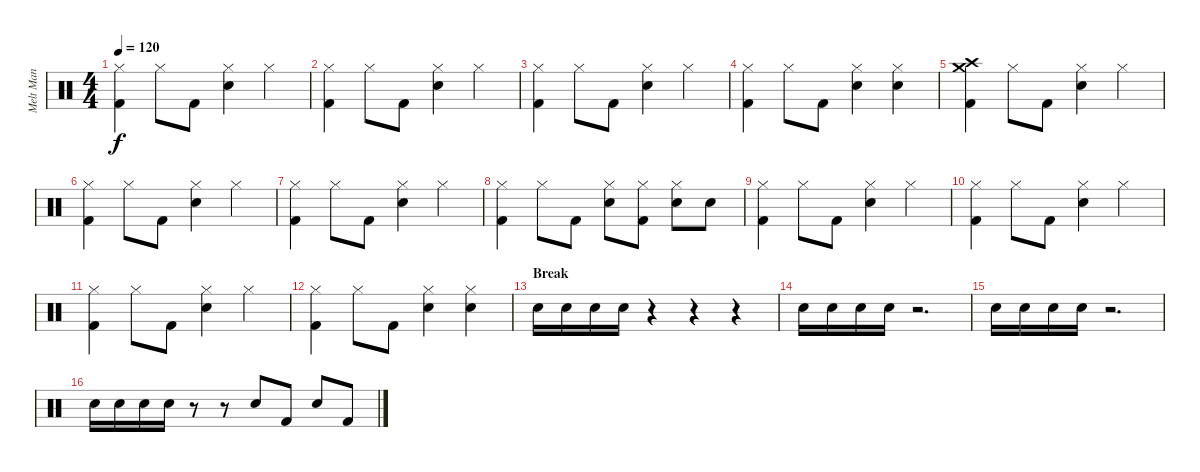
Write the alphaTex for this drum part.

\track ("Melt Man" "Melt Man") {instrument percussion}
\staff {score}
\articulation defaults
\ts (4 4)
\tempo 120
\clef neutral
\ks c
("Hi-Hat (closed)" "Kick (hit) 2").4{dy f} "Hi-Hat (closed)".8 "Kick (hit) 2".8 ("Hi-Hat (closed)" "Snare (hit) 2").4 "Hi-Hat (closed)".4 |
("Hi-Hat (closed)" "Kick (hit) 2").4 "Hi-Hat (closed)".8 "Kick (hit) 2".8 ("Hi-Hat (closed)" "Snare (hit) 2").4 "Hi-Hat (closed)".4 |
("Hi-Hat (closed)" "Kick (hit) 2").4 "Hi-Hat (closed)".8 "Kick (hit) 2".8 ("Hi-Hat (closed)" "Snare (hit) 2").4 "Hi-Hat (closed)".4 |
("Hi-Hat (closed)" "Kick (hit) 2").4 "Hi-Hat (closed)".8 "Kick (hit) 2".8 ("Hi-Hat (closed)" "Snare (hit) 2").4 ("Hi-Hat (closed)" "Snare (hit) 2").4 |
("Crash medium (hit)" "Crash high (hit)" "Kick (hit) 2").4 "Hi-Hat (closed)".8 "Kick (hit) 2".8 ("Hi-Hat (closed)" "Snare (hit) 2").4 "Hi-Hat (closed)".4 |
("Hi-Hat (closed)" "Kick (hit) 2").4 "Hi-Hat (closed)".8 "Kick (hit) 2".8 ("Hi-Hat (closed)" "Snare (hit) 2").4 "Hi-Hat (closed)".4 |
("Hi-Hat (closed)" "Kick (hit) 2").4 "Hi-Hat (closed)".8 "Kick (hit) 2".8 ("Hi-Hat (closed)" "Snare (hit) 2").4 "Hi-Hat (closed)".4 |
("Hi-Hat (closed)" "Kick (hit) 2").4 "Hi-Hat (closed)".8 "Kick (hit) 2".8 ("Hi-Hat (closed)" "Snare (hit) 2").8 ("Hi-Hat (closed)" "Kick (hit) 2").8 ("Hi-Hat (closed)" "Snare (hit) 2").8 "Snare (hit) 2".8 |
("Hi-Hat (closed)" "Kick (hit) 2").4 "Hi-Hat (closed)".8 "Kick (hit) 2".8 ("Hi-Hat (closed)" "Snare (hit) 2").4 "Hi-Hat (closed)".4 |
("Hi-Hat (closed)" "Kick (hit) 2").4 "Hi-Hat (closed)".8 "Kick (hit) 2".8 ("Hi-Hat (closed)" "Snare (hit) 2").4 "Hi-Hat (closed)".4 |
("Hi-Hat (closed)" "Kick (hit) 2").4 "Hi-Hat (closed)".8 "Kick (hit) 2".8 ("Hi-Hat (closed)" "Snare (hit) 2").4 "Hi-Hat (closed)".4 |
("Hi-Hat (closed)" "Kick (hit) 2").4 "Hi-Hat (closed)".8 "Kick (hit) 2".8 ("Hi-Hat (closed)" "Snare (hit) 2").4 ("Hi-Hat (closed)" "Snare (hit) 2").4 |
\section ("" "Break")
"Snare (hit) 2".16 "Snare (hit) 2".16 "Snare (hit) 2".16 "Snare (hit) 2".16 r.4 r.4 r.4 |
"Snare (hit) 2".16 "Snare (hit) 2".16 "Snare (hit) 2".16 "Snare (hit) 2".16 r.2{d} |
"Snare (hit) 2".16 "Snare (hit) 2".16 "Snare (hit) 2".16 "Snare (hit) 2".16 r.2{d} |
"Snare (hit) 2".16 "Snare (hit) 2".16 "Snare (hit) 2".16 "Snare (hit) 2".16 r.8 r.8 "Snare (hit) 2".8 "Kick (hit) 2".8 "Snare (hit) 2".8 "Kick (hit) 2".8
